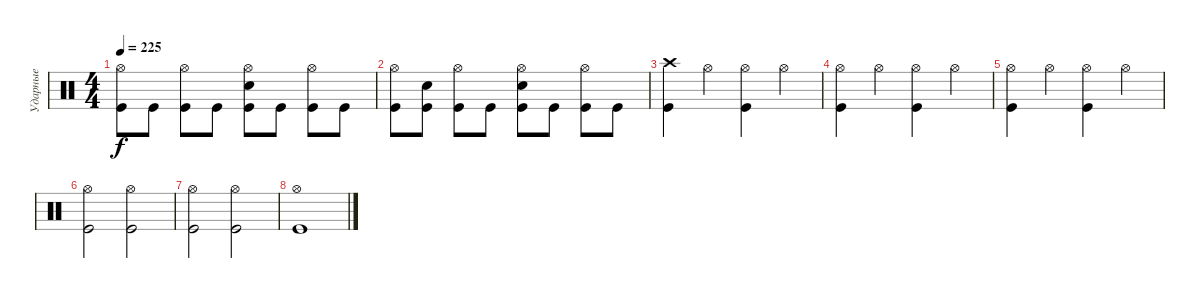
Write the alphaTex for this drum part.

\track ("Ударные" "Ударные") {instrument percussion}
\staff {score}
\articulation defaults
\ts (4 4)
\tempo 225
\clef neutral
\ks c
("Hi-Hat (open)" "Kick (hit)").8{dy f} "Kick (hit)".8 ("Hi-Hat (open)" "Kick (hit)").8 "Kick (hit)".8 ("Hi-Hat (open)" "Snare (hit) 2" "Kick (hit)").8 "Kick (hit)".8 ("Hi-Hat (open)" "Kick (hit)").8 "Kick (hit)".8 |
("Hi-Hat (open)" "Kick (hit)").8 ("Snare (hit) 2" "Kick (hit)").8 ("Hi-Hat (open)" "Kick (hit)").8 "Kick (hit)".8 ("Hi-Hat (open)" "Snare (hit) 2" "Kick (hit)").8 "Kick (hit)".8 ("Hi-Hat (open)" "Kick (hit)").8 "Kick (hit)".8 |
("Kick (hit)" "Crash high (hit)").4 "Hi-Hat (open)".4 ("Kick (hit)" "Hi-Hat (open)").4 "Hi-Hat (open)".4 |
("Kick (hit)" "Hi-Hat (open)").4 "Hi-Hat (open)".4 ("Kick (hit)" "Hi-Hat (open)").4 "Hi-Hat (open)".4 |
("Kick (hit)" "Hi-Hat (open)").4 "Hi-Hat (open)".4 ("Kick (hit)" "Hi-Hat (open)").4 "Hi-Hat (open)".4 |
("Kick (hit)" "Hi-Hat (open)").2 ("Kick (hit)" "Hi-Hat (open)").2 |
("Kick (hit)" "Hi-Hat (open)").2 ("Kick (hit)" "Hi-Hat (open)").2 |
("Kick (hit)" "Hi-Hat (open)").1
